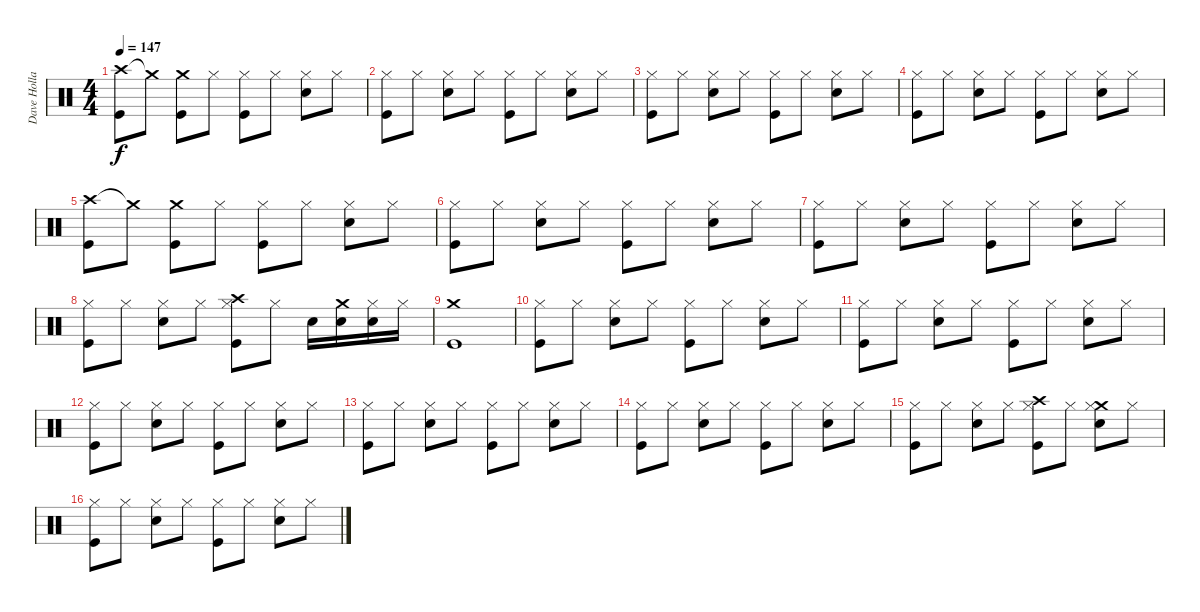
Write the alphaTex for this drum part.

\track ("Dave Holland" "Dave Holla") {instrument percussion}
\staff {score}
\articulation defaults
\ts (4 4)
\tempo 147
\clef neutral
\ks c
("Crash high (hit)" "Kick (hit)").8{dy f} "Crash medium (hit)"{t}.8 ("Crash medium (hit)" "Kick (hit)").8 "Hi-Hat (closed)".8 ("Kick (hit)" "Hi-Hat (closed)").8 "Hi-Hat (closed)".8 ("Electric Snare (hit)" "Hi-Hat (closed)").8 "Hi-Hat (closed)".8 |
("Kick (hit)" "Hi-Hat (closed)").8 "Hi-Hat (closed)".8 ("Electric Snare (hit)" "Hi-Hat (closed)").8 "Hi-Hat (closed)".8 ("Kick (hit)" "Hi-Hat (closed)").8 "Hi-Hat (closed)".8 ("Electric Snare (hit)" "Hi-Hat (closed)").8 "Hi-Hat (closed)".8 |
("Kick (hit)" "Hi-Hat (closed)").8 "Hi-Hat (closed)".8 ("Electric Snare (hit)" "Hi-Hat (closed)").8 "Hi-Hat (closed)".8 ("Kick (hit)" "Hi-Hat (closed)").8 "Hi-Hat (closed)".8 ("Electric Snare (hit)" "Hi-Hat (closed)").8 "Hi-Hat (closed)".8 |
("Kick (hit)" "Hi-Hat (closed)").8 "Hi-Hat (closed)".8 ("Electric Snare (hit)" "Hi-Hat (closed)").8 "Hi-Hat (closed)".8 ("Kick (hit)" "Hi-Hat (closed)").8 "Hi-Hat (closed)".8 ("Electric Snare (hit)" "Hi-Hat (closed)").8 "Hi-Hat (closed)".8 |
("Crash high (hit)" "Kick (hit)").8 "Crash medium (hit)"{t}.8 ("Crash medium (hit)" "Kick (hit)").8 "Hi-Hat (closed)".8 ("Kick (hit)" "Hi-Hat (closed)").8 "Hi-Hat (closed)".8 ("Electric Snare (hit)" "Hi-Hat (closed)").8 "Hi-Hat (closed)".8 |
("Kick (hit)" "Hi-Hat (closed)").8 "Hi-Hat (closed)".8 ("Electric Snare (hit)" "Hi-Hat (closed)").8 "Hi-Hat (closed)".8 ("Kick (hit)" "Hi-Hat (closed)").8 "Hi-Hat (closed)".8 ("Electric Snare (hit)" "Hi-Hat (closed)").8 "Hi-Hat (closed)".8 |
("Kick (hit)" "Hi-Hat (closed)").8 "Hi-Hat (closed)".8 ("Electric Snare (hit)" "Hi-Hat (closed)").8 "Hi-Hat (closed)".8 ("Kick (hit)" "Hi-Hat (closed)").8 "Hi-Hat (closed)".8 ("Electric Snare (hit)" "Hi-Hat (closed)").8 "Hi-Hat (closed)".8 |
("Kick (hit)" "Hi-Hat (closed)").8 "Hi-Hat (closed)".8 ("Electric Snare (hit)" "Hi-Hat (closed)").8 "Hi-Hat (closed)".8 ("Kick (hit)" "Crash high (hit)" "Hi-Hat (closed)").8 "Hi-Hat (closed)".8 "Electric Snare (hit)".16 ("Electric Snare (hit)" "Crash medium (hit)").16 ("Electric Snare (hit)" "Hi-Hat (closed)").16 "Hi-Hat (closed)".16 |
("Kick (hit)" "Crash medium (hit)").1 |
("Kick (hit)" "Hi-Hat (closed)").8 "Hi-Hat (closed)".8 ("Electric Snare (hit)" "Hi-Hat (closed)").8 "Hi-Hat (closed)".8 ("Kick (hit)" "Hi-Hat (closed)").8 "Hi-Hat (closed)".8 ("Electric Snare (hit)" "Hi-Hat (closed)").8 "Hi-Hat (closed)".8 |
("Kick (hit)" "Hi-Hat (closed)").8 "Hi-Hat (closed)".8 ("Electric Snare (hit)" "Hi-Hat (closed)").8 "Hi-Hat (closed)".8 ("Kick (hit)" "Hi-Hat (closed)").8 "Hi-Hat (closed)".8 ("Electric Snare (hit)" "Hi-Hat (closed)").8 "Hi-Hat (closed)".8 |
("Kick (hit)" "Hi-Hat (closed)").8 "Hi-Hat (closed)".8 ("Electric Snare (hit)" "Hi-Hat (closed)").8 "Hi-Hat (closed)".8 ("Kick (hit)" "Hi-Hat (closed)").8 "Hi-Hat (closed)".8 ("Electric Snare (hit)" "Hi-Hat (closed)").8 "Hi-Hat (closed)".8 |
("Kick (hit)" "Hi-Hat (closed)").8 "Hi-Hat (closed)".8 ("Electric Snare (hit)" "Hi-Hat (closed)").8 "Hi-Hat (closed)".8 ("Kick (hit)" "Hi-Hat (closed)").8 "Hi-Hat (closed)".8 ("Electric Snare (hit)" "Hi-Hat (closed)").8 "Hi-Hat (closed)".8 |
("Kick (hit)" "Hi-Hat (closed)").8 "Hi-Hat (closed)".8 ("Electric Snare (hit)" "Hi-Hat (closed)").8 "Hi-Hat (closed)".8 ("Kick (hit)" "Hi-Hat (closed)").8 "Hi-Hat (closed)".8 ("Electric Snare (hit)" "Hi-Hat (closed)").8 "Hi-Hat (closed)".8 |
("Kick (hit)" "Hi-Hat (closed)").8 "Hi-Hat (closed)".8 ("Electric Snare (hit)" "Hi-Hat (closed)").8 "Hi-Hat (closed)".8 ("Kick (hit)" "Crash high (hit)" "Hi-Hat (closed)").8 "Hi-Hat (closed)".8 ("Electric Snare (hit)" "Crash medium (hit)" "Hi-Hat (closed)").8 "Hi-Hat (closed)".8 |
("Kick (hit)" "Hi-Hat (closed)").8 "Hi-Hat (closed)".8 ("Electric Snare (hit)" "Hi-Hat (closed)").8 "Hi-Hat (closed)".8 ("Kick (hit)" "Hi-Hat (closed)").8 "Hi-Hat (closed)".8 ("Electric Snare (hit)" "Hi-Hat (closed)").8 "Hi-Hat (closed)".8
